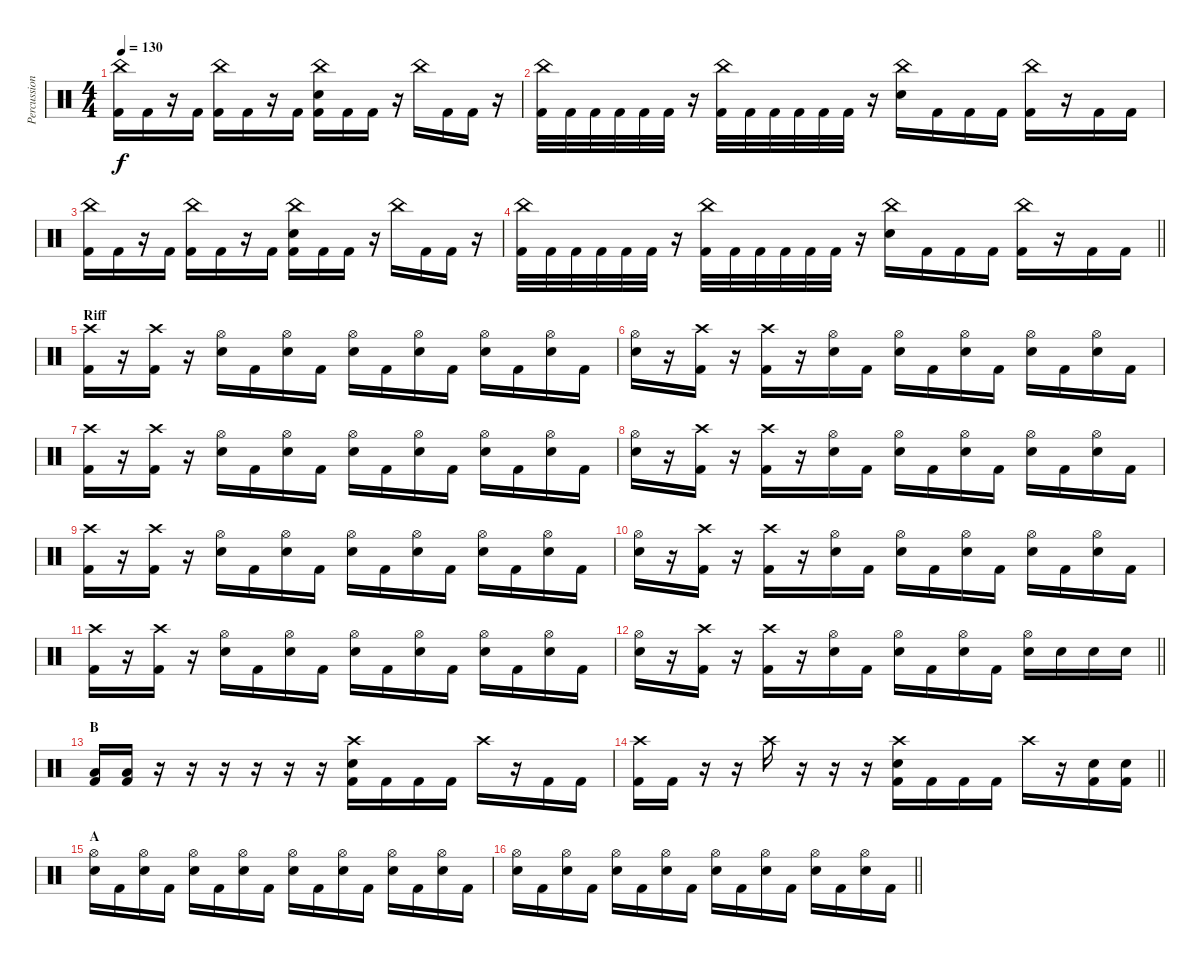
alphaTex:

\track ("Percussion" "Percussion") {instrument percussion}
\staff {score}
\articulation defaults
\ts (4 4)
\tempo 130
\clef neutral
\ks c
("China (hit)" "Kick (hit) 2").16{dy f} "Kick (hit) 2".16 r.16 "Kick (hit) 2".16 ("China (hit)" "Kick (hit) 2").16 "Kick (hit) 2".16 r.16 "Kick (hit) 2".16 ("China (hit)" "Snare (hit) 2" "Kick (hit) 2").16 "Kick (hit) 2".16 "Kick (hit) 2".16 r.16 "China (hit)".16 "Kick (hit) 2".16 "Kick (hit) 2".16 r.16 |
("China (hit)" "Kick (hit) 2").32 "Kick (hit) 2".32 "Kick (hit) 2".32 "Kick (hit) 2".32 "Kick (hit) 2".32 "Kick (hit) 2".32 r.16 ("China (hit)" "Kick (hit) 2").32 "Kick (hit) 2".32 "Kick (hit) 2".32 "Kick (hit) 2".32 "Kick (hit) 2".32 "Kick (hit) 2".32 r.16 ("China (hit)" "Snare (hit) 2").16 "Kick (hit) 2".16 "Kick (hit) 2".16 "Kick (hit) 2".16 ("China (hit)" "Kick (hit) 2").16 r.16 "Kick (hit) 2".16 "Kick (hit) 2".16 |
("China (hit)" "Kick (hit) 2").16 "Kick (hit) 2".16 r.16 "Kick (hit) 2".16 ("China (hit)" "Kick (hit) 2").16 "Kick (hit) 2".16 r.16 "Kick (hit) 2".16 ("China (hit)" "Snare (hit) 2" "Kick (hit) 2").16 "Kick (hit) 2".16 "Kick (hit) 2".16 r.16 "China (hit)".16 "Kick (hit) 2".16 "Kick (hit) 2".16 r.16 |
\barLineRight lightlight
("China (hit)" "Kick (hit) 2").32 "Kick (hit) 2".32 "Kick (hit) 2".32 "Kick (hit) 2".32 "Kick (hit) 2".32 "Kick (hit) 2".32 r.16 ("China (hit)" "Kick (hit) 2").32 "Kick (hit) 2".32 "Kick (hit) 2".32 "Kick (hit) 2".32 "Kick (hit) 2".32 "Kick (hit) 2".32 r.16 ("China (hit)" "Snare (hit) 2").16 "Kick (hit) 2".16 "Kick (hit) 2".16 "Kick (hit) 2".16 ("China (hit)" "Kick (hit) 2").16 r.16 "Kick (hit) 2".16 "Kick (hit) 2".16 |
\section ("" "Riff")
("Crash high (hit)" "Kick (hit) 2").16 r.16 ("Crash high (hit)" "Kick (hit) 2").16 r.16 ("Hi-Hat (open)" "Snare (hit) 2").16 "Kick (hit) 2".16 ("Hi-Hat (open)" "Snare (hit) 2").16 "Kick (hit) 2".16 ("Hi-Hat (open)" "Snare (hit) 2").16 "Kick (hit) 2".16 ("Hi-Hat (open)" "Snare (hit) 2").16 "Kick (hit) 2".16 ("Hi-Hat (open)" "Snare (hit) 2").16 "Kick (hit) 2".16 ("Hi-Hat (open)" "Snare (hit) 2").16 "Kick (hit) 2".16 |
("Hi-Hat (open)" "Snare (hit) 2").16 r.16 ("Crash high (hit)" "Kick (hit) 2").16 r.16 ("Crash high (hit)" "Kick (hit) 2").16 r.16 ("Hi-Hat (open)" "Snare (hit) 2").16 "Kick (hit) 2".16 ("Hi-Hat (open)" "Snare (hit) 2").16 "Kick (hit) 2".16 ("Hi-Hat (open)" "Snare (hit) 2").16 "Kick (hit) 2".16 ("Hi-Hat (open)" "Snare (hit) 2").16 "Kick (hit) 2".16 ("Hi-Hat (open)" "Snare (hit) 2").16 "Kick (hit) 2".16 |
("Crash high (hit)" "Kick (hit) 2").16 r.16 ("Crash high (hit)" "Kick (hit) 2").16 r.16 ("Hi-Hat (open)" "Snare (hit) 2").16 "Kick (hit) 2".16 ("Hi-Hat (open)" "Snare (hit) 2").16 "Kick (hit) 2".16 ("Hi-Hat (open)" "Snare (hit) 2").16 "Kick (hit) 2".16 ("Hi-Hat (open)" "Snare (hit) 2").16 "Kick (hit) 2".16 ("Hi-Hat (open)" "Snare (hit) 2").16 "Kick (hit) 2".16 ("Hi-Hat (open)" "Snare (hit) 2").16 "Kick (hit) 2".16 |
("Hi-Hat (open)" "Snare (hit) 2").16 r.16 ("Crash high (hit)" "Kick (hit) 2").16 r.16 ("Crash high (hit)" "Kick (hit) 2").16 r.16 ("Hi-Hat (open)" "Snare (hit) 2").16 "Kick (hit) 2".16 ("Hi-Hat (open)" "Snare (hit) 2").16 "Kick (hit) 2".16 ("Hi-Hat (open)" "Snare (hit) 2").16 "Kick (hit) 2".16 ("Hi-Hat (open)" "Snare (hit) 2").16 "Kick (hit) 2".16 ("Hi-Hat (open)" "Snare (hit) 2").16 "Kick (hit) 2".16 |
("Crash high (hit)" "Kick (hit) 2").16 r.16 ("Crash high (hit)" "Kick (hit) 2").16 r.16 ("Hi-Hat (open)" "Snare (hit) 2").16 "Kick (hit) 2".16 ("Hi-Hat (open)" "Snare (hit) 2").16 "Kick (hit) 2".16 ("Hi-Hat (open)" "Snare (hit) 2").16 "Kick (hit) 2".16 ("Hi-Hat (open)" "Snare (hit) 2").16 "Kick (hit) 2".16 ("Hi-Hat (open)" "Snare (hit) 2").16 "Kick (hit) 2".16 ("Hi-Hat (open)" "Snare (hit) 2").16 "Kick (hit) 2".16 |
("Hi-Hat (open)" "Snare (hit) 2").16 r.16 ("Crash high (hit)" "Kick (hit) 2").16 r.16 ("Crash high (hit)" "Kick (hit) 2").16 r.16 ("Hi-Hat (open)" "Snare (hit) 2").16 "Kick (hit) 2".16 ("Hi-Hat (open)" "Snare (hit) 2").16 "Kick (hit) 2".16 ("Hi-Hat (open)" "Snare (hit) 2").16 "Kick (hit) 2".16 ("Hi-Hat (open)" "Snare (hit) 2").16 "Kick (hit) 2".16 ("Hi-Hat (open)" "Snare (hit) 2").16 "Kick (hit) 2".16 |
("Crash high (hit)" "Kick (hit) 2").16 r.16 ("Crash high (hit)" "Kick (hit) 2").16 r.16 ("Hi-Hat (open)" "Snare (hit) 2").16 "Kick (hit) 2".16 ("Hi-Hat (open)" "Snare (hit) 2").16 "Kick (hit) 2".16 ("Hi-Hat (open)" "Snare (hit) 2").16 "Kick (hit) 2".16 ("Hi-Hat (open)" "Snare (hit) 2").16 "Kick (hit) 2".16 ("Hi-Hat (open)" "Snare (hit) 2").16 "Kick (hit) 2".16 ("Hi-Hat (open)" "Snare (hit) 2").16 "Kick (hit) 2".16 |
\barLineRight lightlight
("Hi-Hat (open)" "Snare (hit) 2").16 r.16 ("Crash high (hit)" "Kick (hit) 2").16 r.16 ("Crash high (hit)" "Kick (hit) 2").16 r.16 ("Hi-Hat (open)" "Snare (hit) 2").16 "Kick (hit) 2".16 ("Hi-Hat (open)" "Snare (hit) 2").16 "Kick (hit) 2".16 ("Hi-Hat (open)" "Snare (hit) 2").16 "Kick (hit) 2".16 ("Hi-Hat (open)" "Snare (hit) 2").16 "Snare (hit) 2".16 "Snare (hit) 2".16 "Snare (hit) 2".16 |
\section ("" "B")
("Low Floor Tom (hit)" "Kick (hit) 2").16 ("Low Floor Tom (hit)" "Kick (hit) 2").16 r.16 r.16 r.16 r.16 r.16 r.16 ("Crash high (hit)" "Snare (hit) 2" "Kick (hit) 2").16 "Kick (hit) 2".16 "Kick (hit) 2".16 "Kick (hit) 2".16 "Crash high (hit)".16 r.16 "Kick (hit) 2".16 "Kick (hit) 2".16 |
\barLineRight lightlight
("Crash high (hit)" "Kick (hit) 2").16 "Kick (hit) 2".16 r.16 r.16 "Crash high (hit)".16 r.16 r.16 r.16 ("Crash high (hit)" "Snare (hit) 2" "Kick (hit) 2").16 "Kick (hit) 2".16 "Kick (hit) 2".16 "Kick (hit) 2".16 "Crash high (hit)".16 r.16 ("Snare (hit) 2" "Kick (hit) 2").16 ("Snare (hit) 2" "Kick (hit) 2").16 |
\section ("" "A")
("Hi-Hat (open)" "Snare (hit) 2").16 "Kick (hit) 2".16 ("Hi-Hat (open)" "Snare (hit) 2").16 "Kick (hit) 2".16 ("Hi-Hat (open)" "Snare (hit) 2").16 "Kick (hit) 2".16 ("Hi-Hat (open)" "Snare (hit) 2").16 "Kick (hit) 2".16 ("Hi-Hat (open)" "Snare (hit) 2").16 "Kick (hit) 2".16 ("Hi-Hat (open)" "Snare (hit) 2").16 "Kick (hit) 2".16 ("Hi-Hat (open)" "Snare (hit) 2").16 "Kick (hit) 2".16 ("Hi-Hat (open)" "Snare (hit) 2").16 "Kick (hit) 2".16 |
\barLineRight lightlight
("Hi-Hat (open)" "Snare (hit) 2").16 "Kick (hit) 2".16 ("Hi-Hat (open)" "Snare (hit) 2").16 "Kick (hit) 2".16 ("Hi-Hat (open)" "Snare (hit) 2").16 "Kick (hit) 2".16 ("Hi-Hat (open)" "Snare (hit) 2").16 "Kick (hit) 2".16 ("Hi-Hat (open)" "Snare (hit) 2").16 "Kick (hit) 2".16 ("Hi-Hat (open)" "Snare (hit) 2").16 "Kick (hit) 2".16 ("Hi-Hat (open)" "Snare (hit) 2").16 "Kick (hit) 2".16 ("Hi-Hat (open)" "Snare (hit) 2").16 "Kick (hit) 2".16
